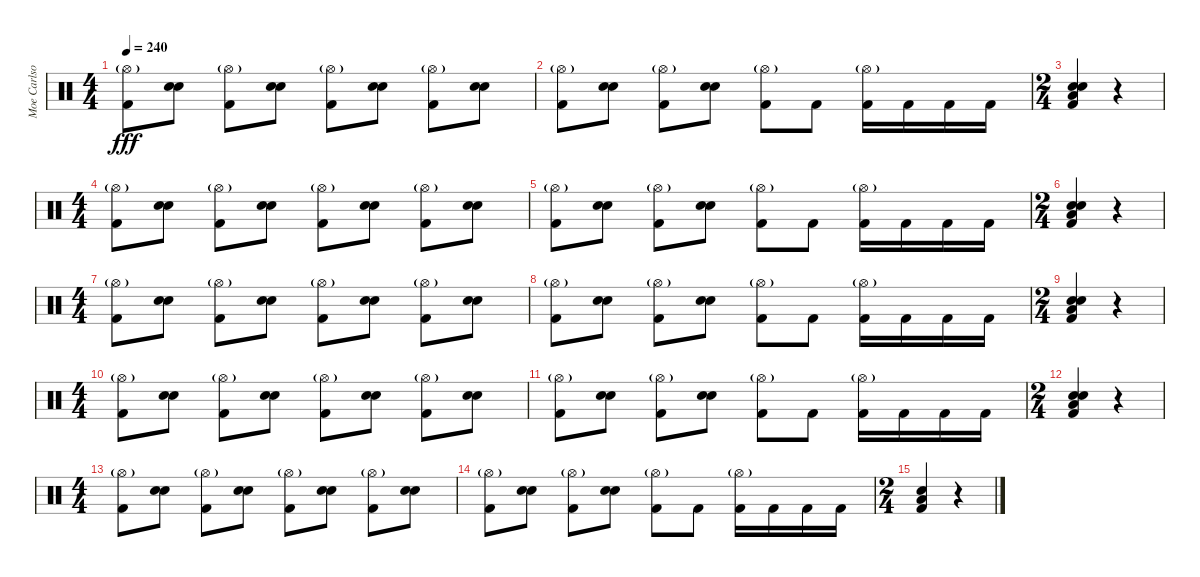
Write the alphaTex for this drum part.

\track ("Moe Carlson" "Moe Carlso") {instrument percussion}
\staff {score}
\articulation defaults
\ts (4 4)
\tempo 240
\clef neutral
\ks c
("Hi-Hat (open)"{g} "Kick (hit) 2").8{dy fff} ("Snare (hit) 2" "Electric Snare (hit)").8 ("Hi-Hat (open)"{g} "Kick (hit) 2").8 ("Snare (hit) 2" "Electric Snare (hit)").8 ("Hi-Hat (open)"{g} "Kick (hit) 2").8 ("Snare (hit) 2" "Electric Snare (hit)").8 ("Hi-Hat (open)"{g} "Kick (hit) 2").8 ("Snare (hit) 2" "Electric Snare (hit)").8 |
("Hi-Hat (open)"{g} "Kick (hit) 2").8 ("Snare (hit) 2" "Electric Snare (hit)").8 ("Hi-Hat (open)"{g} "Kick (hit) 2").8 ("Snare (hit) 2" "Electric Snare (hit)").8 ("Hi-Hat (open)"{g} "Kick (hit) 2").8 "Kick (hit) 2".8 ("Hi-Hat (open)"{g} "Kick (hit) 2").16 "Kick (hit) 2".16 "Kick (hit) 2".16 "Kick (hit) 2".16 |
\ts (2 4)
("Snare (hit) 2" "Electric Snare (hit)" "Low Floor Tom (hit)" "Kick (hit) 2").4 r.4 |
\ts (4 4)
("Hi-Hat (open)"{g} "Kick (hit) 2").8 ("Snare (hit) 2" "Electric Snare (hit)").8 ("Hi-Hat (open)"{g} "Kick (hit) 2").8 ("Snare (hit) 2" "Electric Snare (hit)").8 ("Hi-Hat (open)"{g} "Kick (hit) 2").8 ("Snare (hit) 2" "Electric Snare (hit)").8 ("Hi-Hat (open)"{g} "Kick (hit) 2").8 ("Snare (hit) 2" "Electric Snare (hit)").8 |
("Hi-Hat (open)"{g} "Kick (hit) 2").8 ("Snare (hit) 2" "Electric Snare (hit)").8 ("Hi-Hat (open)"{g} "Kick (hit) 2").8 ("Snare (hit) 2" "Electric Snare (hit)").8 ("Hi-Hat (open)"{g} "Kick (hit) 2").8 "Kick (hit) 2".8 ("Hi-Hat (open)"{g} "Kick (hit) 2").16 "Kick (hit) 2".16 "Kick (hit) 2".16 "Kick (hit) 2".16 |
\ts (2 4)
("Snare (hit) 2" "Electric Snare (hit)" "Low Floor Tom (hit)" "Kick (hit) 2").4 r.4 |
\ts (4 4)
("Hi-Hat (open)"{g} "Kick (hit) 2").8 ("Snare (hit) 2" "Electric Snare (hit)").8 ("Hi-Hat (open)"{g} "Kick (hit) 2").8 ("Snare (hit) 2" "Electric Snare (hit)").8 ("Hi-Hat (open)"{g} "Kick (hit) 2").8 ("Snare (hit) 2" "Electric Snare (hit)").8 ("Hi-Hat (open)"{g} "Kick (hit) 2").8 ("Snare (hit) 2" "Electric Snare (hit)").8 |
("Hi-Hat (open)"{g} "Kick (hit) 2").8 ("Snare (hit) 2" "Electric Snare (hit)").8 ("Hi-Hat (open)"{g} "Kick (hit) 2").8 ("Snare (hit) 2" "Electric Snare (hit)").8 ("Hi-Hat (open)"{g} "Kick (hit) 2").8 "Kick (hit) 2".8 ("Hi-Hat (open)"{g} "Kick (hit) 2").16 "Kick (hit) 2".16 "Kick (hit) 2".16 "Kick (hit) 2".16 |
\ts (2 4)
("Snare (hit) 2" "Electric Snare (hit)" "Low Floor Tom (hit)" "Kick (hit) 2").4 r.4 |
\ts (4 4)
("Hi-Hat (open)"{g} "Kick (hit) 2").8 ("Snare (hit) 2" "Electric Snare (hit)").8 ("Hi-Hat (open)"{g} "Kick (hit) 2").8 ("Snare (hit) 2" "Electric Snare (hit)").8 ("Hi-Hat (open)"{g} "Kick (hit) 2").8 ("Snare (hit) 2" "Electric Snare (hit)").8 ("Hi-Hat (open)"{g} "Kick (hit) 2").8 ("Snare (hit) 2" "Electric Snare (hit)").8 |
("Hi-Hat (open)"{g} "Kick (hit) 2").8 ("Snare (hit) 2" "Electric Snare (hit)").8 ("Hi-Hat (open)"{g} "Kick (hit) 2").8 ("Snare (hit) 2" "Electric Snare (hit)").8 ("Hi-Hat (open)"{g} "Kick (hit) 2").8 "Kick (hit) 2".8 ("Hi-Hat (open)"{g} "Kick (hit) 2").16 "Kick (hit) 2".16 "Kick (hit) 2".16 "Kick (hit) 2".16 |
\ts (2 4)
("Snare (hit) 2" "Electric Snare (hit)" "Low Floor Tom (hit)" "Kick (hit) 2").4 r.4 |
\ts (4 4)
("Hi-Hat (open)"{g} "Kick (hit) 2").8 ("Snare (hit) 2" "Electric Snare (hit)").8 ("Hi-Hat (open)"{g} "Kick (hit) 2").8 ("Snare (hit) 2" "Electric Snare (hit)").8 ("Hi-Hat (open)"{g} "Kick (hit) 2").8 ("Snare (hit) 2" "Electric Snare (hit)").8 ("Hi-Hat (open)"{g} "Kick (hit) 2").8 ("Snare (hit) 2" "Electric Snare (hit)").8 |
("Hi-Hat (open)"{g} "Kick (hit) 2").8 ("Snare (hit) 2" "Electric Snare (hit)").8 ("Hi-Hat (open)"{g} "Kick (hit) 2").8 ("Snare (hit) 2" "Electric Snare (hit)").8 ("Hi-Hat (open)"{g} "Kick (hit) 2").8 "Kick (hit) 2".8 ("Hi-Hat (open)"{g} "Kick (hit) 2").16 "Kick (hit) 2".16 "Kick (hit) 2".16 "Kick (hit) 2".16 |
\ts (2 4)
("Electric Snare (hit)" "Low Floor Tom (hit)" "Kick (hit) 2").4 r.4
